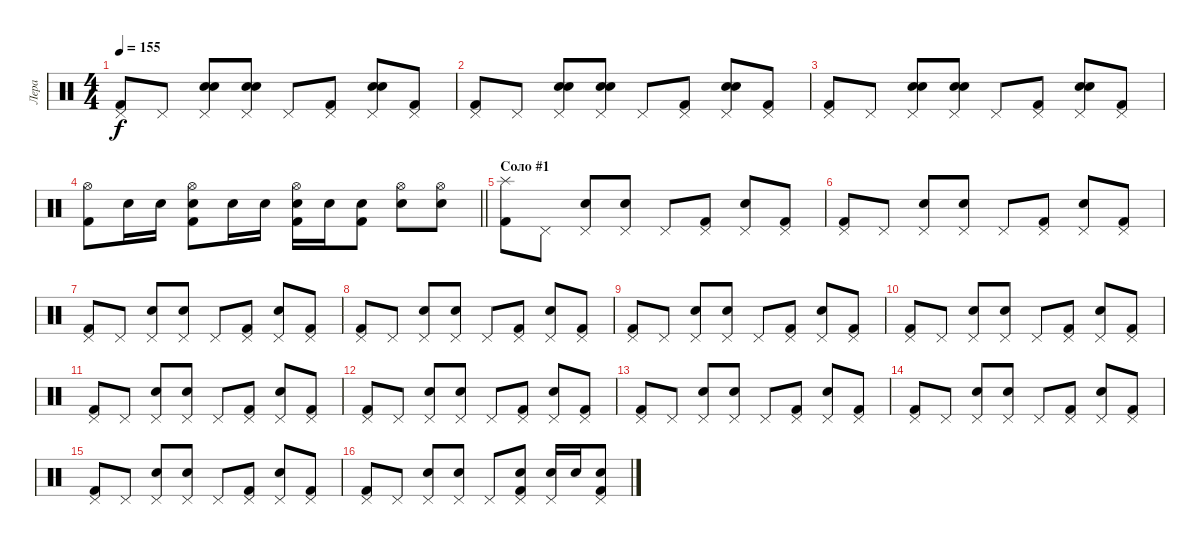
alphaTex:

\track ("Лера" "Лера") {instrument percussion}
\staff {score}
\articulation defaults
\ts (4 4)
\tempo 155
\clef neutral
\ks c
("Pedal Hi-Hat (hit)" "Kick (hit) 2").8{dy f} "Pedal Hi-Hat (hit)".8 ("Pedal Hi-Hat (hit)" "Hand Clap (hit)" "Electric Snare (hit)").8 ("Pedal Hi-Hat (hit)" "Hand Clap (hit)" "Electric Snare (hit)").8 "Pedal Hi-Hat (hit)".8 ("Pedal Hi-Hat (hit)" "Kick (hit) 2").8 ("Pedal Hi-Hat (hit)" "Hand Clap (hit)" "Electric Snare (hit)").8 ("Pedal Hi-Hat (hit)" "Kick (hit) 2").8 |
("Pedal Hi-Hat (hit)" "Kick (hit) 2").8 "Pedal Hi-Hat (hit)".8 ("Pedal Hi-Hat (hit)" "Hand Clap (hit)" "Electric Snare (hit)").8 ("Pedal Hi-Hat (hit)" "Hand Clap (hit)" "Electric Snare (hit)").8 "Pedal Hi-Hat (hit)".8 ("Pedal Hi-Hat (hit)" "Kick (hit) 2").8 ("Pedal Hi-Hat (hit)" "Hand Clap (hit)" "Electric Snare (hit)").8 ("Pedal Hi-Hat (hit)" "Kick (hit) 2").8 |
("Pedal Hi-Hat (hit)" "Kick (hit) 2").8 "Pedal Hi-Hat (hit)".8 ("Pedal Hi-Hat (hit)" "Hand Clap (hit)" "Electric Snare (hit)").8 ("Pedal Hi-Hat (hit)" "Hand Clap (hit)" "Electric Snare (hit)").8 "Pedal Hi-Hat (hit)".8 ("Pedal Hi-Hat (hit)" "Kick (hit) 2").8 ("Pedal Hi-Hat (hit)" "Hand Clap (hit)" "Electric Snare (hit)").8 ("Pedal Hi-Hat (hit)" "Kick (hit) 2").8 |
\barLineRight lightlight
("Hi-Hat (open)" "Kick (hit) 2").8 "Electric Snare (hit)".16 "Electric Snare (hit)".16 ("Hi-Hat (open)" "Electric Snare (hit)" "Kick (hit) 2").8 "Electric Snare (hit)".16 "Electric Snare (hit)".16 ("Hi-Hat (open)" "Electric Snare (hit)" "Kick (hit) 2").16 "Electric Snare (hit)".16 ("Electric Snare (hit)" "Kick (hit) 2").8 ("Hi-Hat (open)" "Electric Snare (hit)").8 ("Hi-Hat (open)" "Electric Snare (hit)").8 |
\section ("" "Соло #1")
("Splash (hit)" "Kick (hit) 2").8 "Pedal Hi-Hat (hit)".8 ("Pedal Hi-Hat (hit)" "Electric Snare (hit)").8 ("Pedal Hi-Hat (hit)" "Electric Snare (hit)").8 "Pedal Hi-Hat (hit)".8 ("Pedal Hi-Hat (hit)" "Kick (hit) 2").8 ("Pedal Hi-Hat (hit)" "Electric Snare (hit)").8 ("Pedal Hi-Hat (hit)" "Kick (hit) 2").8 |
("Pedal Hi-Hat (hit)" "Kick (hit) 2").8 "Pedal Hi-Hat (hit)".8 ("Pedal Hi-Hat (hit)" "Electric Snare (hit)").8 ("Pedal Hi-Hat (hit)" "Electric Snare (hit)").8 "Pedal Hi-Hat (hit)".8 ("Pedal Hi-Hat (hit)" "Kick (hit) 2").8 ("Pedal Hi-Hat (hit)" "Electric Snare (hit)").8 ("Pedal Hi-Hat (hit)" "Kick (hit) 2").8 |
("Pedal Hi-Hat (hit)" "Kick (hit) 2").8 "Pedal Hi-Hat (hit)".8 ("Pedal Hi-Hat (hit)" "Electric Snare (hit)").8 ("Pedal Hi-Hat (hit)" "Electric Snare (hit)").8 "Pedal Hi-Hat (hit)".8 ("Pedal Hi-Hat (hit)" "Kick (hit) 2").8 ("Pedal Hi-Hat (hit)" "Electric Snare (hit)").8 ("Pedal Hi-Hat (hit)" "Kick (hit) 2").8 |
("Pedal Hi-Hat (hit)" "Kick (hit) 2").8 "Pedal Hi-Hat (hit)".8 ("Pedal Hi-Hat (hit)" "Electric Snare (hit)").8 ("Pedal Hi-Hat (hit)" "Electric Snare (hit)").8 "Pedal Hi-Hat (hit)".8 ("Pedal Hi-Hat (hit)" "Kick (hit) 2").8 ("Pedal Hi-Hat (hit)" "Electric Snare (hit)").8 ("Pedal Hi-Hat (hit)" "Kick (hit) 2").8 |
("Pedal Hi-Hat (hit)" "Kick (hit) 2").8 "Pedal Hi-Hat (hit)".8 ("Pedal Hi-Hat (hit)" "Electric Snare (hit)").8 ("Pedal Hi-Hat (hit)" "Electric Snare (hit)").8 "Pedal Hi-Hat (hit)".8 ("Pedal Hi-Hat (hit)" "Kick (hit) 2").8 ("Pedal Hi-Hat (hit)" "Electric Snare (hit)").8 ("Pedal Hi-Hat (hit)" "Kick (hit) 2").8 |
("Pedal Hi-Hat (hit)" "Kick (hit) 2").8 "Pedal Hi-Hat (hit)".8 ("Pedal Hi-Hat (hit)" "Electric Snare (hit)").8 ("Pedal Hi-Hat (hit)" "Electric Snare (hit)").8 "Pedal Hi-Hat (hit)".8 ("Pedal Hi-Hat (hit)" "Kick (hit) 2").8 ("Pedal Hi-Hat (hit)" "Electric Snare (hit)").8 ("Pedal Hi-Hat (hit)" "Kick (hit) 2").8 |
("Pedal Hi-Hat (hit)" "Kick (hit) 2").8 "Pedal Hi-Hat (hit)".8 ("Pedal Hi-Hat (hit)" "Electric Snare (hit)").8 ("Pedal Hi-Hat (hit)" "Electric Snare (hit)").8 "Pedal Hi-Hat (hit)".8 ("Pedal Hi-Hat (hit)" "Kick (hit) 2").8 ("Pedal Hi-Hat (hit)" "Electric Snare (hit)").8 ("Pedal Hi-Hat (hit)" "Kick (hit) 2").8 |
("Pedal Hi-Hat (hit)" "Kick (hit) 2").8 "Pedal Hi-Hat (hit)".8 ("Pedal Hi-Hat (hit)" "Electric Snare (hit)").8 ("Pedal Hi-Hat (hit)" "Electric Snare (hit)").8 "Pedal Hi-Hat (hit)".8 ("Pedal Hi-Hat (hit)" "Kick (hit) 2").8 ("Pedal Hi-Hat (hit)" "Electric Snare (hit)").8 ("Pedal Hi-Hat (hit)" "Kick (hit) 2").8 |
("Pedal Hi-Hat (hit)" "Kick (hit) 2").8 "Pedal Hi-Hat (hit)".8 ("Pedal Hi-Hat (hit)" "Electric Snare (hit)").8 ("Pedal Hi-Hat (hit)" "Electric Snare (hit)").8 "Pedal Hi-Hat (hit)".8 ("Pedal Hi-Hat (hit)" "Kick (hit) 2").8 ("Pedal Hi-Hat (hit)" "Electric Snare (hit)").8 ("Pedal Hi-Hat (hit)" "Kick (hit) 2").8 |
("Pedal Hi-Hat (hit)" "Kick (hit) 2").8 "Pedal Hi-Hat (hit)".8 ("Pedal Hi-Hat (hit)" "Electric Snare (hit)").8 ("Pedal Hi-Hat (hit)" "Electric Snare (hit)").8 "Pedal Hi-Hat (hit)".8 ("Pedal Hi-Hat (hit)" "Kick (hit) 2").8 ("Pedal Hi-Hat (hit)" "Electric Snare (hit)").8 ("Pedal Hi-Hat (hit)" "Kick (hit) 2").8 |
("Pedal Hi-Hat (hit)" "Kick (hit) 2").8 "Pedal Hi-Hat (hit)".8 ("Pedal Hi-Hat (hit)" "Electric Snare (hit)").8 ("Pedal Hi-Hat (hit)" "Electric Snare (hit)").8 "Pedal Hi-Hat (hit)".8 ("Pedal Hi-Hat (hit)" "Kick (hit) 2").8 ("Pedal Hi-Hat (hit)" "Electric Snare (hit)").8 ("Pedal Hi-Hat (hit)" "Kick (hit) 2").8 |
("Pedal Hi-Hat (hit)" "Kick (hit) 2").8 "Pedal Hi-Hat (hit)".8 ("Pedal Hi-Hat (hit)" "Electric Snare (hit)").8 ("Pedal Hi-Hat (hit)" "Electric Snare (hit)").8 "Pedal Hi-Hat (hit)".8 ("Pedal Hi-Hat (hit)" "Electric Snare (hit)" "Kick (hit) 2").8 ("Pedal Hi-Hat (hit)" "Electric Snare (hit)").16 "Electric Snare (hit)".16 ("Pedal Hi-Hat (hit)" "Electric Snare (hit)" "Kick (hit) 2").8
